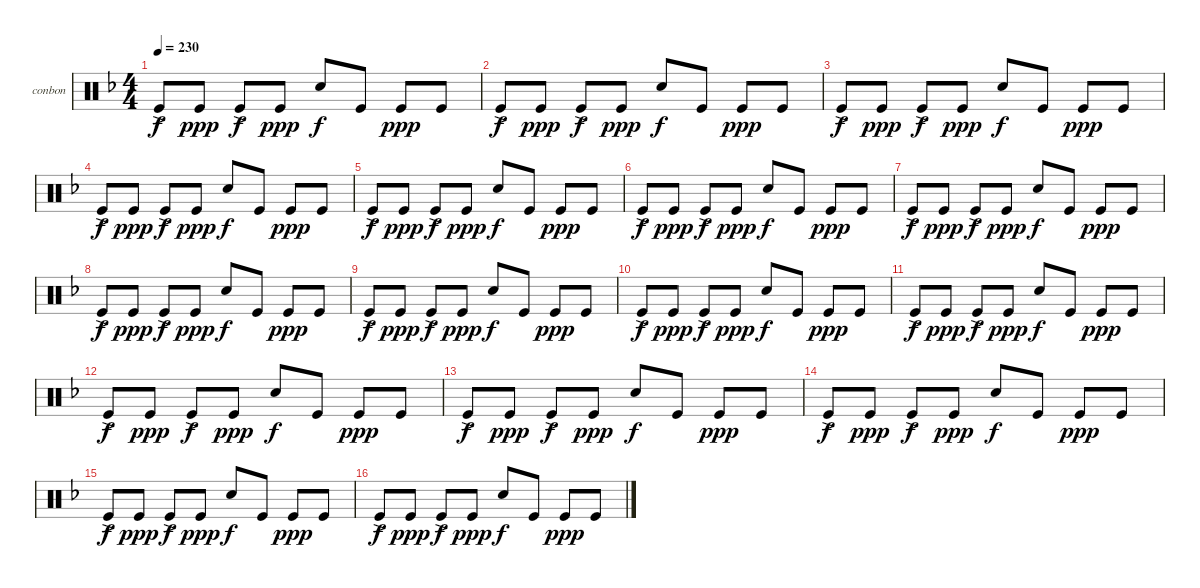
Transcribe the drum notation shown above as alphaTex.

\defaultSystemsLayout 4
\bracketExtendMode groupsimilarinstruments
\firstSystemTrackNameOrientation horizontal
\otherSystemsTrackNameOrientation horizontal
\track ("Bongos N Congas" "conbon") {instrument percussion}
\staff {score}
\articulation defaults
\ts (4 4)
\tempo 230
\clef neutral
\ks dminor "Kick (hit)"{ac}.8{dy f} "Kick (hit)".8{dy ppp} "Kick (hit)"{ac}.8{dy f} "Kick (hit)".8{dy ppp} "Snare (hit) 2".8{dy f} "Kick (hit)".8 "Kick (hit)".8{dy ppp} "Kick (hit)".8
|
"Kick (hit)"{ac}.8{dy f} "Kick (hit)".8{dy ppp} "Kick (hit)"{ac}.8{dy f} "Kick (hit)".8{dy ppp} "Snare (hit) 2".8{dy f} "Kick (hit)".8 "Kick (hit)".8{dy ppp} "Kick (hit)".8 |
"Kick (hit)"{ac}.8{dy f} "Kick (hit)".8{dy ppp} "Kick (hit)"{ac}.8{dy f} "Kick (hit)".8{dy ppp} "Snare (hit) 2".8{dy f} "Kick (hit)".8 "Kick (hit)".8{dy ppp} "Kick (hit)".8 |
"Kick (hit)"{ac}.8{dy f} "Kick (hit)".8{dy ppp} "Kick (hit)"{ac}.8{dy f} "Kick (hit)".8{dy ppp} "Snare (hit) 2".8{dy f} "Kick (hit)".8 "Kick (hit)".8{dy ppp} "Kick (hit)".8 |
"Kick (hit)"{ac}.8{dy f} "Kick (hit)".8{dy ppp} "Kick (hit)"{ac}.8{dy f} "Kick (hit)".8{dy ppp} "Snare (hit) 2".8{dy f} "Kick (hit)".8 "Kick (hit)".8{dy ppp} "Kick (hit)".8 |
"Kick (hit)"{ac}.8{dy f} "Kick (hit)".8{dy ppp} "Kick (hit)"{ac}.8{dy f} "Kick (hit)".8{dy ppp} "Snare (hit) 2".8{dy f} "Kick (hit)".8 "Kick (hit)".8{dy ppp} "Kick (hit)".8 |
"Kick (hit)"{ac}.8{dy f} "Kick (hit)".8{dy ppp} "Kick (hit)"{ac}.8{dy f} "Kick (hit)".8{dy ppp} "Snare (hit) 2".8{dy f} "Kick (hit)".8 "Kick (hit)".8{dy ppp} "Kick (hit)".8 |
"Kick (hit)"{ac}.8{dy f} "Kick (hit)".8{dy ppp} "Kick (hit)"{ac}.8{dy f} "Kick (hit)".8{dy ppp} "Snare (hit) 2".8{dy f} "Kick (hit)".8 "Kick (hit)".8{dy ppp} "Kick (hit)".8 |
"Kick (hit)"{ac}.8{dy f} "Kick (hit)".8{dy ppp} "Kick (hit)"{ac}.8{dy f} "Kick (hit)".8{dy ppp} "Snare (hit) 2".8{dy f} "Kick (hit)".8 "Kick (hit)".8{dy ppp} "Kick (hit)".8 |
"Kick (hit)"{ac}.8{dy f} "Kick (hit)".8{dy ppp} "Kick (hit)"{ac}.8{dy f} "Kick (hit)".8{dy ppp} "Snare (hit) 2".8{dy f} "Kick (hit)".8 "Kick (hit)".8{dy ppp} "Kick (hit)".8 |
"Kick (hit)"{ac}.8{dy f} "Kick (hit)".8{dy ppp} "Kick (hit)"{ac}.8{dy f} "Kick (hit)".8{dy ppp} "Snare (hit) 2".8{dy f} "Kick (hit)".8 "Kick (hit)".8{dy ppp} "Kick (hit)".8 |
"Kick (hit)"{ac}.8{dy f} "Kick (hit)".8{dy ppp} "Kick (hit)"{ac}.8{dy f} "Kick (hit)".8{dy ppp} "Snare (hit) 2".8{dy f} "Kick (hit)".8 "Kick (hit)".8{dy ppp} "Kick (hit)".8 |
"Kick (hit)"{ac}.8{dy f} "Kick (hit)".8{dy ppp} "Kick (hit)"{ac}.8{dy f} "Kick (hit)".8{dy ppp} "Snare (hit) 2".8{dy f} "Kick (hit)".8 "Kick (hit)".8{dy ppp} "Kick (hit)".8 |
"Kick (hit)"{ac}.8{dy f} "Kick (hit)".8{dy ppp} "Kick (hit)"{ac}.8{dy f} "Kick (hit)".8{dy ppp} "Snare (hit) 2".8{dy f} "Kick (hit)".8 "Kick (hit)".8{dy ppp} "Kick (hit)".8 |
"Kick (hit)"{ac}.8{dy f} "Kick (hit)".8{dy ppp} "Kick (hit)"{ac}.8{dy f} "Kick (hit)".8{dy ppp} "Snare (hit) 2".8{dy f} "Kick (hit)".8 "Kick (hit)".8{dy ppp} "Kick (hit)".8 |
"Kick (hit)"{ac}.8{dy f} "Kick (hit)".8{dy ppp} "Kick (hit)"{ac}.8{dy f} "Kick (hit)".8{dy ppp} "Snare (hit) 2".8{dy f} "Kick (hit)".8 "Kick (hit)".8{dy ppp} "Kick (hit)".8
